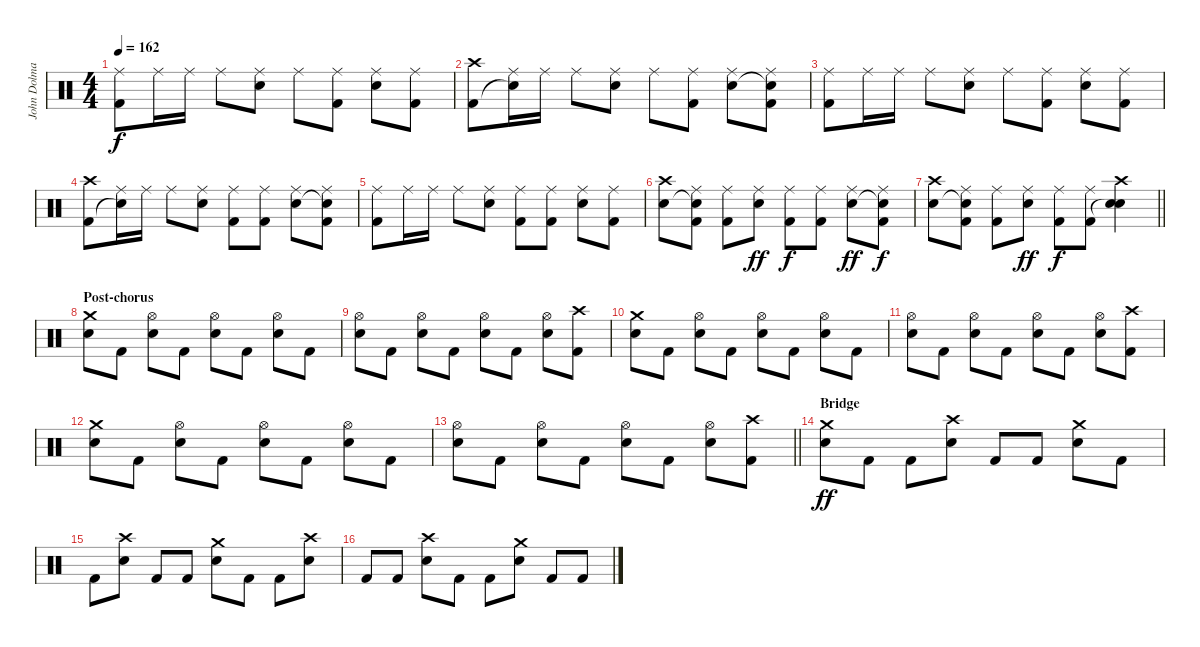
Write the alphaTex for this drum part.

\track ("John Dolmayan" "John Dolma") {instrument percussion}
\staff {score}
\articulation defaults
\ts (4 4)
\tempo 162
\clef neutral
\ks c
("Ride (middle)" "Kick (hit) 2").8{dy f} "Ride (middle)".16 "Ride (middle)".16 "Ride (middle)".8 ("Ride (middle)" "Electric Snare (hit)").8 "Ride (middle)".8 ("Ride (middle)" "Kick (hit) 2").8 ("Ride (middle)" "Electric Snare (hit)").8 ("Ride (middle)" "Kick (hit) 2").8 |
("Crash high (hit)" "Kick (hit) 2").8 ("Ride (middle)" "Snare (hit)"{t}).16 "Ride (middle)".16 "Ride (middle)".8 ("Ride (middle)" "Electric Snare (hit)").8 "Ride (middle)".8 ("Ride (middle)" "Kick (hit) 2").8 ("Ride (middle)" "Electric Snare (hit)").8 ("Ride (middle)" "Snare (hit)"{t} "Kick (hit) 2").8 |
("Ride (middle)" "Kick (hit) 2").8 "Ride (middle)".16 "Ride (middle)".16 "Ride (middle)".8 ("Ride (middle)" "Electric Snare (hit)").8 "Ride (middle)".8 ("Ride (middle)" "Kick (hit) 2").8 ("Ride (middle)" "Electric Snare (hit)").8 ("Ride (middle)" "Kick (hit) 2").8 |
("Crash high (hit)" "Kick (hit) 2").8 ("Ride (middle)" "Snare (hit)"{t}).16 "Ride (middle)".16 "Ride (middle)".8 ("Ride (middle)" "Electric Snare (hit)").8 ("Ride (middle)" "Kick (hit) 2").8 ("Ride (middle)" "Kick (hit) 2").8 ("Ride (middle)" "Electric Snare (hit)").8 ("Ride (middle)" "Snare (hit)"{t} "Kick (hit) 2").8 |
("Ride (middle)" "Kick (hit) 2").8 "Ride (middle)".16 "Ride (middle)".16 "Ride (middle)".8 ("Ride (middle)" "Electric Snare (hit)").8 ("Ride (middle)" "Kick (hit) 2").8 ("Ride (middle)" "Kick (hit) 2").8 ("Ride (middle)" "Electric Snare (hit)").8 ("Ride (middle)" "Kick (hit) 2").8 |
("Crash high (hit)" "Electric Snare (hit)").8 ("Ride (middle)" "Snare (hit)"{t} "Kick (hit) 2").8 ("Ride (middle)" "Kick (hit) 2").8 ("Ride (middle)" "Electric Snare (hit)").8{dy ff} ("Ride (middle)" "Kick (hit) 2").8{dy f} ("Ride (middle)" "Kick (hit) 2").8 ("Ride (middle)" "Electric Snare (hit)").8{dy ff} ("Ride (middle)" "Snare (hit)"{t} "Kick (hit) 2").8{dy f} |
\barLineRight lightlight
("Crash high (hit)" "Electric Snare (hit)").8 ("Ride (middle)" "Snare (hit)"{t} "Kick (hit) 2").8 ("Ride (middle)" "Kick (hit) 2").8 ("Ride (middle)" "Electric Snare (hit)").8{dy ff} ("Ride (middle)" "Kick (hit) 2").8{dy f} ("Ride (middle)" "Kick (hit) 2").8 ("Crash high (hit)" "Snare (hit)"{t} "Electric Snare (hit)").4 |
\section ("" "Post-chorus")
("Crash medium (hit)" "Electric Snare (hit)").8 "Kick (hit) 2".8 ("Hi-Hat (open)" "Electric Snare (hit)").8 "Kick (hit) 2".8 ("Hi-Hat (open)" "Electric Snare (hit)").8 "Kick (hit) 2".8 ("Hi-Hat (open)" "Electric Snare (hit)").8 "Kick (hit) 2".8 |
("Hi-Hat (open)" "Electric Snare (hit)").8 "Kick (hit) 2".8 ("Hi-Hat (open)" "Electric Snare (hit)").8 "Kick (hit) 2".8 ("Hi-Hat (open)" "Electric Snare (hit)").8 "Kick (hit) 2".8 ("Hi-Hat (open)" "Electric Snare (hit)").8 ("Crash high (hit)" "Kick (hit) 2").8 |
("Crash medium (hit)" "Electric Snare (hit)").8 "Kick (hit) 2".8 ("Hi-Hat (open)" "Electric Snare (hit)").8 "Kick (hit) 2".8 ("Hi-Hat (open)" "Electric Snare (hit)").8 "Kick (hit) 2".8 ("Hi-Hat (open)" "Electric Snare (hit)").8 "Kick (hit) 2".8 |
("Hi-Hat (open)" "Electric Snare (hit)").8 "Kick (hit) 2".8 ("Hi-Hat (open)" "Electric Snare (hit)").8 "Kick (hit) 2".8 ("Hi-Hat (open)" "Electric Snare (hit)").8 "Kick (hit) 2".8 ("Hi-Hat (open)" "Electric Snare (hit)").8 ("Crash high (hit)" "Kick (hit) 2").8 |
("Crash medium (hit)" "Electric Snare (hit)").8 "Kick (hit) 2".8 ("Hi-Hat (open)" "Electric Snare (hit)").8 "Kick (hit) 2".8 ("Hi-Hat (open)" "Electric Snare (hit)").8 "Kick (hit) 2".8 ("Hi-Hat (open)" "Electric Snare (hit)").8 "Kick (hit) 2".8 |
\barLineRight lightlight
("Hi-Hat (open)" "Electric Snare (hit)").8 "Kick (hit) 2".8 ("Hi-Hat (open)" "Electric Snare (hit)").8 "Kick (hit) 2".8 ("Hi-Hat (open)" "Electric Snare (hit)").8 "Kick (hit) 2".8 ("Hi-Hat (open)" "Electric Snare (hit)").8 ("Crash high (hit)" "Kick (hit) 2").8 |
\section ("" "Bridge")
("Crash medium (hit)" "Electric Snare (hit)").8{dy ff} "Kick (hit) 2".8 "Kick (hit) 2".8 ("Crash high (hit)" "Electric Snare (hit)").8 "Kick (hit) 2".8 "Kick (hit) 2".8 ("Crash medium (hit)" "Electric Snare (hit)").8 "Kick (hit) 2".8 |
"Kick (hit) 2".8 ("Crash high (hit)" "Electric Snare (hit)").8 "Kick (hit) 2".8 "Kick (hit) 2".8 ("Crash medium (hit)" "Electric Snare (hit)").8 "Kick (hit) 2".8 "Kick (hit) 2".8 ("Crash high (hit)" "Electric Snare (hit)").8 |
"Kick (hit) 2".8 "Kick (hit) 2".8 ("Crash high (hit)" "Electric Snare (hit)").8 "Kick (hit) 2".8 "Kick (hit) 2".8 ("Crash medium (hit)" "Electric Snare (hit)").8 "Kick (hit) 2".8 "Kick (hit) 2".8
